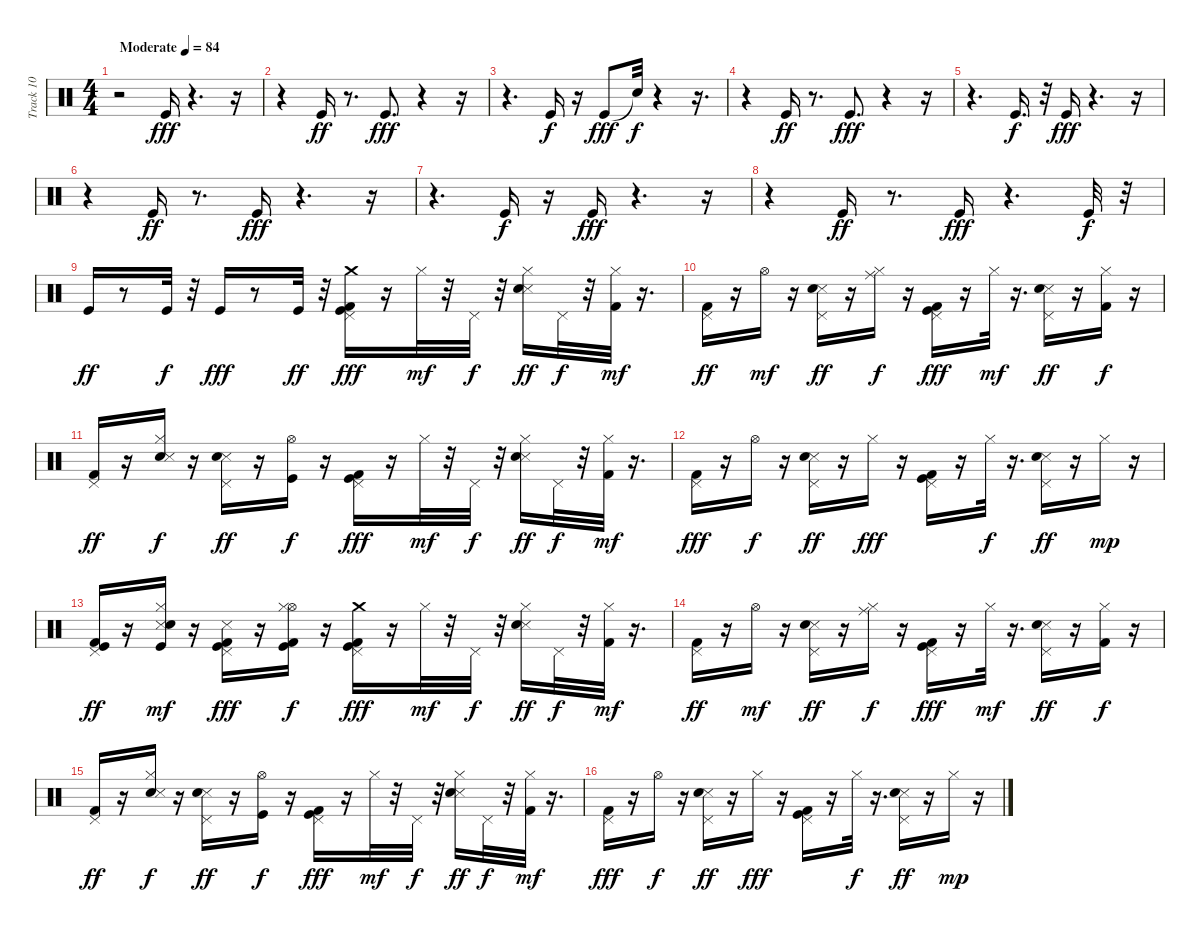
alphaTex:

\track ("Track 10" "Track 10") {instrument percussion}
\staff {score}
\articulation defaults
\ts (4 4)
\tempo (84 "Moderate")
\clef neutral
\ks c
r.2{dy fff} "Kick (hit)".16 r.4{d} r.16 |
r.4 "Kick (hit)".16{dy ff} r.8{d} "Kick (hit)".8{d dy fff} r.4 r.16 |
r.4{d} "Kick (hit)".16{dy f} r.16 "Kick (hit)".8{dy fff} "Snare (hit)"{t}.32{dy f} r.4 r.16{d} |
r.4 "Kick (hit)".16{dy ff} r.8{d} "Kick (hit)".8{d dy fff} r.4 r.16 |
r.4{d} "Kick (hit)".16{d dy f} r.32 "Kick (hit)".16{dy fff} r.4{d} r.16 |
r.4 "Kick (hit)".16{dy ff} r.8{d} "Kick (hit)".16{dy fff} r.4{d} r.16 |
r.4{d} "Kick (hit)".16{dy f} r.16 "Kick (hit)".16{dy fff} r.4{d} r.16 |
r.4 "Kick (hit)".16{dy ff} r.8{d} "Kick (hit)".16{dy fff} r.4{d} "Kick (hit)".32{dy f} r.32 |
"Kick (hit)".16{dy ff} r.8 "Kick (hit)".32{dy f} r.32 "Kick (hit)".16{dy fff} r.8 "Kick (hit)".32{dy ff} r.32 ("Pedal Hi-Hat (hit)" "Kick (hit) 2" "Kick (hit)" "Crash medium (hit)").16{dy fff} r.16 "Hi-Hat (closed)".32{dy mf} r.32 "Pedal Hi-Hat (hit)".32{dy f} r.32 ("Snare (side stick) 3" "Snare (hit) 2" "Hi-Hat (closed)").16{dy ff} "Pedal Hi-Hat (hit)".32{dy f} r.32 ("Kick (hit) 2" "Hi-Hat (closed)").32{dy mf} r.16{d} |
("Kick (hit) 2" "Pedal Hi-Hat (hit)").16{dy ff} r.16 "Hi-Hat (open)".16{dy mf} r.16 ("Pedal Hi-Hat (hit)" "Snare (side stick) 3" "Snare (hit) 2").16{dy ff} r.16 ("Hi-Hat (closed)" "Ride (middle)").16{dy f} r.16 ("Kick (hit)" "Kick (hit) 2" "Pedal Hi-Hat (hit)").16{dy fff} r.16 "Hi-Hat (closed)".32{dy mf} r.16{d} ("Snare (side stick) 3" "Snare (hit) 2" "Pedal Hi-Hat (hit)").16{dy ff} r.16 ("Kick (hit) 2" "Hi-Hat (closed)").16{dy f} r.16 |
("Pedal Hi-Hat (hit)" "Kick (hit) 2").16{dy ff} r.16 ("Snare (hit) 2" "Snare (side stick) 3" "Hi-Hat (closed)").16{dy f} r.16 ("Snare (side stick) 3" "Snare (hit) 2" "Pedal Hi-Hat (hit)").16{dy ff} r.16 ("Hi-Hat (open)" "Kick (hit)").16{dy f} r.16 ("Kick (hit) 2" "Kick (hit)" "Pedal Hi-Hat (hit)").16{dy fff} r.16 "Hi-Hat (closed)".32{dy mf} r.32 "Pedal Hi-Hat (hit)".32{dy f} r.32 ("Snare (side stick) 3" "Snare (hit) 2" "Hi-Hat (closed)").16{dy ff} "Pedal Hi-Hat (hit)".32{dy f} r.32 ("Kick (hit) 2" "Hi-Hat (closed)").32{dy mf} r.16{d} |
("Kick (hit) 2" "Pedal Hi-Hat (hit)").16{dy fff} r.16 "Hi-Hat (open)".16{dy f} r.16 ("Snare (side stick) 3" "Snare (hit) 2" "Pedal Hi-Hat (hit)").16{dy ff} r.16 "Hi-Hat (closed)".16{dy fff} r.16 ("Kick (hit)" "Kick (hit) 2" "Pedal Hi-Hat (hit)").16 r.16 "Hi-Hat (closed)".32{dy f} r.16{d} ("Pedal Hi-Hat (hit)" "Snare (side stick) 3" "Snare (hit) 2").16{dy ff} r.16 "Hi-Hat (closed)".16{dy mp} r.16 |
("Kick (hit)" "Kick (hit) 2" "Pedal Hi-Hat (hit)").16{dy ff} r.16 ("Snare (side stick) 3" "Kick (hit)" "Snare (hit) 2" "Hi-Hat (closed)").16{dy mf} r.16 ("Kick (hit)" "Kick (hit) 2" "Snare (side stick) 3" "Pedal Hi-Hat (hit)").16{dy fff} r.16 ("Kick (hit)" "Kick (hit) 2" "Hi-Hat (open)" "Hi-Hat (closed)").16{dy f} r.16 ("Pedal Hi-Hat (hit)" "Kick (hit) 2" "Kick (hit)" "Crash medium (hit)").16{dy fff} r.16 "Hi-Hat (closed)".32{dy mf} r.32 "Pedal Hi-Hat (hit)".32{dy f} r.32 ("Snare (side stick) 3" "Snare (hit) 2" "Hi-Hat (closed)").16{dy ff} "Pedal Hi-Hat (hit)".32{dy f} r.32 ("Kick (hit) 2" "Hi-Hat (closed)").32{dy mf} r.16{d} |
("Kick (hit) 2" "Pedal Hi-Hat (hit)").16{dy ff} r.16 "Hi-Hat (open)".16{dy mf} r.16 ("Pedal Hi-Hat (hit)" "Snare (side stick) 3" "Snare (hit) 2").16{dy ff} r.16 ("Hi-Hat (closed)" "Ride (middle)").16{dy f} r.16 ("Kick (hit)" "Kick (hit) 2" "Pedal Hi-Hat (hit)").16{dy fff} r.16 "Hi-Hat (closed)".32{dy mf} r.16{d} ("Snare (side stick) 3" "Snare (hit) 2" "Pedal Hi-Hat (hit)").16{dy ff} r.16 ("Kick (hit) 2" "Hi-Hat (closed)").16{dy f} r.16 |
("Pedal Hi-Hat (hit)" "Kick (hit) 2").16{dy ff} r.16 ("Snare (hit) 2" "Snare (side stick) 3" "Hi-Hat (closed)").16{dy f} r.16 ("Snare (side stick) 3" "Snare (hit) 2" "Pedal Hi-Hat (hit)").16{dy ff} r.16 ("Hi-Hat (open)" "Kick (hit)").16{dy f} r.16 ("Kick (hit) 2" "Kick (hit)" "Pedal Hi-Hat (hit)").16{dy fff} r.16 "Hi-Hat (closed)".32{dy mf} r.32 "Pedal Hi-Hat (hit)".32{dy f} r.32 ("Snare (side stick) 3" "Snare (hit) 2" "Hi-Hat (closed)").16{dy ff} "Pedal Hi-Hat (hit)".32{dy f} r.32 ("Kick (hit) 2" "Hi-Hat (closed)").32{dy mf} r.16{d} |
("Kick (hit) 2" "Pedal Hi-Hat (hit)").16{dy fff} r.16 "Hi-Hat (open)".16{dy f} r.16 ("Snare (side stick) 3" "Snare (hit) 2" "Pedal Hi-Hat (hit)").16{dy ff} r.16 "Hi-Hat (closed)".16{dy fff} r.16 ("Kick (hit)" "Kick (hit) 2" "Pedal Hi-Hat (hit)").16 r.16 "Hi-Hat (closed)".32{dy f} r.16{d} ("Pedal Hi-Hat (hit)" "Snare (side stick) 3" "Snare (hit) 2").16{dy ff} r.16 "Hi-Hat (closed)".16{dy mp} r.16
